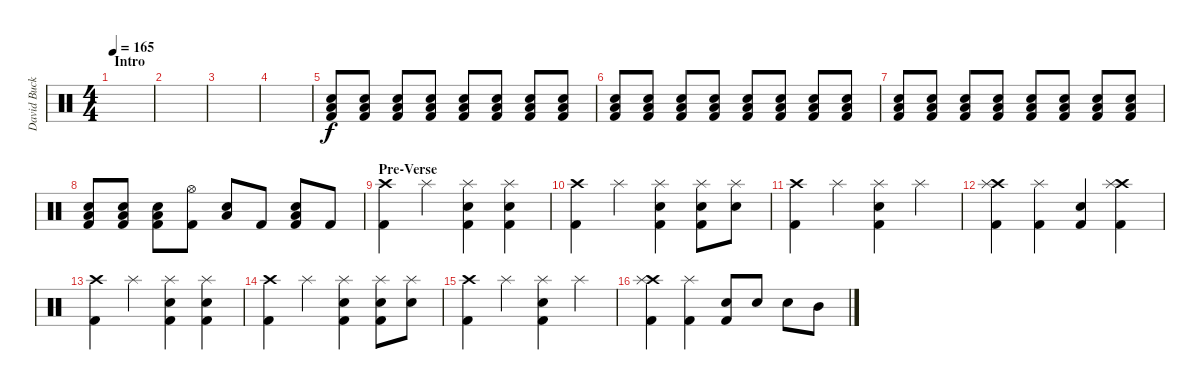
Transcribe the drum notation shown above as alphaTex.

\track ("David Buckner" "David Buck") {instrument percussion}
\staff {score}
\articulation defaults
\ts (4 4)
\section ("" "Intro")
\tempo 165
\clef neutral
\ks c
|
|
|
|
("Snare (hit) 2" "Low Tom (hit)" "Kick (hit) 2").8 ("Snare (hit) 2" "Low Tom (hit)" "Kick (hit) 2").8 ("Snare (hit) 2" "Low Tom (hit)" "Kick (hit) 2").8 ("Snare (hit) 2" "Low Tom (hit)" "Kick (hit) 2").8 ("Snare (hit) 2" "Low Tom (hit)" "Kick (hit) 2").8 ("Snare (hit) 2" "Low Tom (hit)" "Kick (hit) 2").8 ("Snare (hit) 2" "Low Tom (hit)" "Kick (hit) 2").8 ("Snare (hit) 2" "Low Tom (hit)" "Kick (hit) 2").8 |
("Snare (hit) 2" "Low Tom (hit)" "Kick (hit) 2").8 ("Snare (hit) 2" "Low Tom (hit)" "Kick (hit) 2").8 ("Snare (hit) 2" "Low Tom (hit)" "Kick (hit) 2").8 ("Snare (hit) 2" "Low Tom (hit)" "Kick (hit) 2").8 ("Snare (hit) 2" "Low Tom (hit)" "Kick (hit) 2").8 ("Snare (hit) 2" "Low Tom (hit)" "Kick (hit) 2").8 ("Snare (hit) 2" "Low Tom (hit)" "Kick (hit) 2").8 ("Snare (hit) 2" "Low Tom (hit)" "Kick (hit) 2").8 |
("Snare (hit) 2" "Low Tom (hit)" "Kick (hit) 2").8 ("Snare (hit) 2" "Low Tom (hit)" "Kick (hit) 2").8 ("Snare (hit) 2" "Low Tom (hit)" "Kick (hit) 2").8 ("Snare (hit) 2" "Low Tom (hit)" "Kick (hit) 2").8 ("Snare (hit) 2" "Low Tom (hit)" "Kick (hit) 2").8 ("Snare (hit) 2" "Low Tom (hit)" "Kick (hit) 2").8 ("Snare (hit) 2" "Low Tom (hit)" "Kick (hit) 2").8 ("Snare (hit) 2" "Low Tom (hit)" "Kick (hit) 2").8 |
("Snare (hit) 2" "Low Tom (hit)" "Kick (hit) 2").8 ("Snare (hit) 2" "Low Tom (hit)" "Kick (hit) 2").8 ("Snare (hit) 2" "Low Tom (hit)" "Kick (hit) 2").8 ("Hi-Hat (open)" "Kick (hit) 2").8 ("Snare (hit) 2" "Low Tom (hit)").8 "Kick (hit) 2".8 ("Snare (hit) 2" "Low Tom (hit)" "Kick (hit) 2").8 "Kick (hit) 2".8 |
\section ("" "Pre-Verse")
("Crash high (hit)" "Kick (hit) 2").4 "Splash (hit)".4 ("Splash (hit)" "Snare (hit) 2" "Kick (hit) 2").4 ("Splash (hit)" "Snare (hit) 2" "Kick (hit) 2").4 |
("Crash high (hit)" "Kick (hit) 2").4 "Splash (hit)".4 ("Splash (hit)" "Snare (hit) 2" "Kick (hit) 2").4 ("Splash (hit)" "Snare (hit) 2" "Kick (hit) 2").8 ("Splash (hit)" "Snare (hit) 2").8 |
("Crash high (hit)" "Kick (hit) 2").4 "Splash (hit)".4 ("Splash (hit)" "Snare (hit) 2" "Kick (hit) 2").4 "Splash (hit)".4 |
("Crash high (hit)" "Splash (hit)" "Kick (hit) 2").4 ("Splash (hit)" "Kick (hit) 2").4 ("Snare (hit) 2" "Kick (hit) 2").4 ("Crash high (hit)" "Splash (hit)" "Kick (hit) 2").4 |
("Crash high (hit)" "Kick (hit) 2").4 "Splash (hit)".4 ("Splash (hit)" "Snare (hit) 2" "Kick (hit) 2").4 ("Splash (hit)" "Snare (hit) 2" "Kick (hit) 2").4 |
("Crash high (hit)" "Kick (hit) 2").4 "Splash (hit)".4 ("Splash (hit)" "Snare (hit) 2" "Kick (hit) 2").4 ("Splash (hit)" "Snare (hit) 2" "Kick (hit) 2").8 ("Splash (hit)" "Snare (hit) 2").8 |
("Crash high (hit)" "Kick (hit) 2").4 "Splash (hit)".4 ("Splash (hit)" "Snare (hit) 2" "Kick (hit) 2").4 "Splash (hit)".4 |
("Crash high (hit)" "Splash (hit)" "Kick (hit) 2").4 ("Splash (hit)" "Kick (hit) 2").4 ("Snare (hit) 2" "Kick (hit) 2").8 "Snare (hit) 2".8 "Snare (hit) 2".8 "Mid Tom (hit)".8
